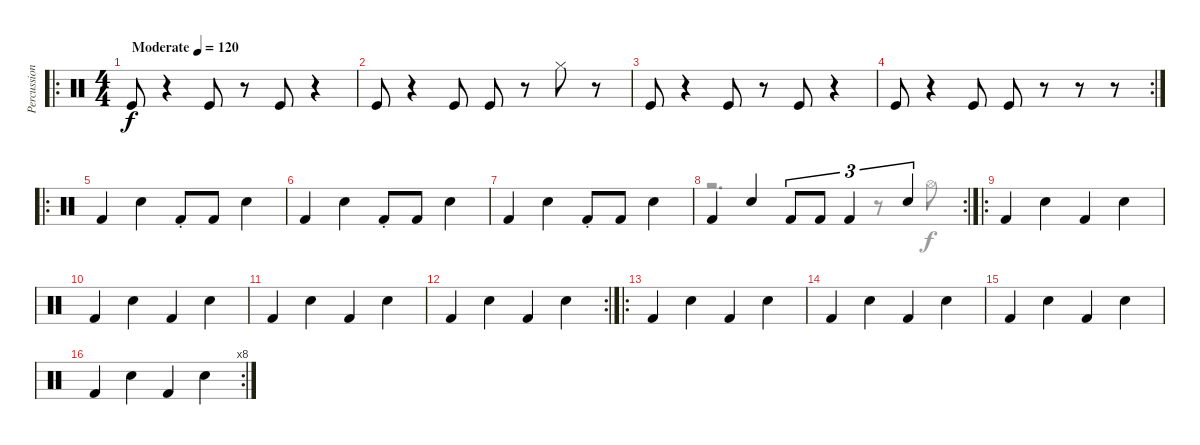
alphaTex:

\track ("Percussion" "Percussion") {instrument percussion}
\staff {score}
\articulation defaults
\voice
\ro
\ts (4 4)
\tempo (120 "Moderate")
\clef neutral
\ks c "Kick (hit)".8{dy f}
r.4 "Kick (hit)".8 r.8 "Kick (hit)".8 r.4 |
"Kick (hit)".8 r.4 "Kick (hit)".8 "Kick (hit)".8 r.8 "Hi-Hat (closed)".8 r.8 |
"Kick (hit)".8 r.4 "Kick (hit)".8 r.8 "Kick (hit)".8 r.4 |
\rc 2 "Kick (hit)".8
r.4 "Kick (hit)".8 "Kick (hit)".8 r.8 r.8 r.8 |
\ro "Kick (hit) 2".4 "Snare (hit) 2".4 "Kick (hit) 2"{st}.8 "Kick (hit) 2".8 "Snare (hit) 2".4
|
"Kick (hit) 2".4 "Snare (hit) 2".4 "Kick (hit) 2"{st}.8 "Kick (hit) 2".8 "Snare (hit) 2".4 |
"Kick (hit) 2".4 "Snare (hit) 2".4 "Kick (hit) 2"{st}.8 "Kick (hit) 2".8 "Snare (hit) 2".4 |
\rc 2 "Kick (hit) 2".4 "Snare (hit) 2".4 "Kick (hit) 2".8{tu (3 2)} "Kick (hit) 2".8{tu (3 2)} "Kick (hit) 2".4{tu (3 2)} "Snare (hit) 2".4{tu (3 2)}
|
\ro "Kick (hit) 2".4 "Snare (hit) 2".4 "Kick (hit) 2".4 "Snare (hit) 2".4
|
"Kick (hit) 2".4 "Snare (hit) 2".4 "Kick (hit) 2".4 "Snare (hit) 2".4 |
"Kick (hit) 2".4 "Snare (hit) 2".4 "Kick (hit) 2".4 "Snare (hit) 2".4 |
\rc 2 "Kick (hit) 2".4 "Snare (hit) 2".4 "Kick (hit) 2".4 "Snare (hit) 2".4
|
\ro "Kick (hit) 2".4 "Snare (hit) 2".4 "Kick (hit) 2".4 "Snare (hit) 2".4
|
"Kick (hit) 2".4 "Snare (hit) 2".4 "Kick (hit) 2".4 "Snare (hit) 2".4 |
"Kick (hit) 2".4 "Snare (hit) 2".4 "Kick (hit) 2".4 "Snare (hit) 2".4 |
\rc 8 "Kick (hit) 2".4 "Snare (hit) 2".4 "Kick (hit) 2".4 "Snare (hit) 2".4
\voice
\clef neutral
\ottava regular
\simile none
\ks c
|
|
|
|
|
|
|
r.2{d} r.8 "Hi-Hat (open)".8 |
|
|
|
|
|
|
|
